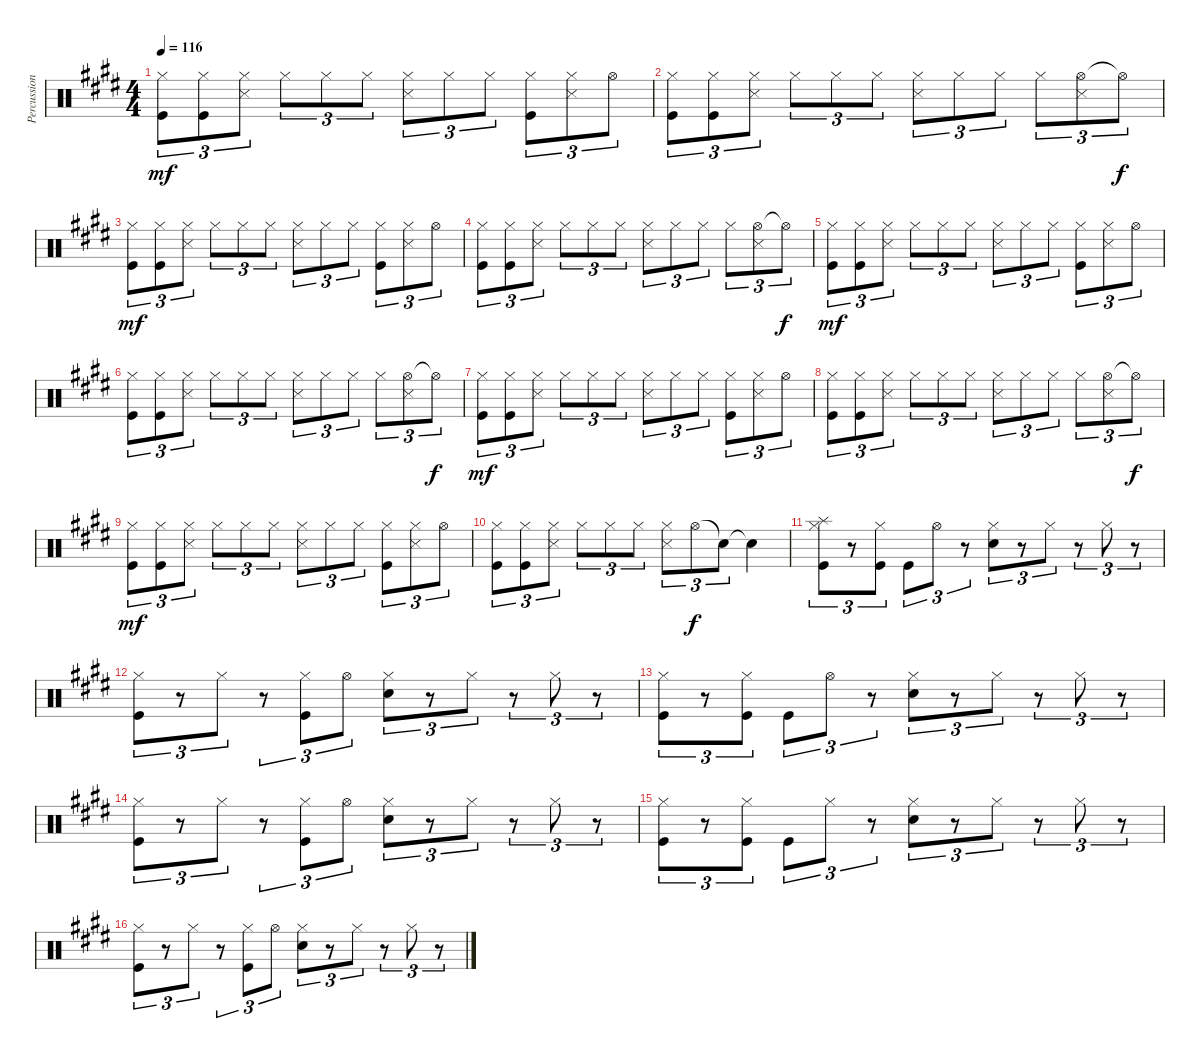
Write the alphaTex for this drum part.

\track ("Percussion" "Percussion") {instrument percussion}
\staff {score}
\articulation defaults
\ts (4 4)
\tempo 116
\clef neutral
\ks c#minor
("Hi-Hat (closed)" "Kick (hit)").8{tu (3 2) dy mf} ("Hi-Hat (closed)" "Kick (hit)").8{tu (3 2)} ("Hi-Hat (closed)" "Snare (side stick) 3").8{tu (3 2)} "Hi-Hat (closed)".8{tu (3 2)} "Hi-Hat (closed)".8{tu (3 2)} "Hi-Hat (closed)".8{tu (3 2)} ("Hi-Hat (closed)" "Snare (side stick) 3").8{tu (3 2)} "Hi-Hat (closed)".8{tu (3 2)} "Hi-Hat (closed)".8{tu (3 2)} ("Hi-Hat (closed)" "Kick (hit)").8{tu (3 2)} ("Hi-Hat (closed)" "Snare (side stick) 3").8{tu (3 2)} "Hi-Hat (open)".8{tu (3 2)} |
("Hi-Hat (closed)" "Kick (hit)").8{tu (3 2)} ("Hi-Hat (closed)" "Kick (hit)").8{tu (3 2)} ("Hi-Hat (closed)" "Snare (side stick) 3").8{tu (3 2)} "Hi-Hat (closed)".8{tu (3 2)} "Hi-Hat (closed)".8{tu (3 2)} "Hi-Hat (closed)".8{tu (3 2)} ("Hi-Hat (closed)" "Snare (side stick) 3").8{tu (3 2)} "Hi-Hat (closed)".8{tu (3 2)} "Hi-Hat (closed)".8{tu (3 2)} "Hi-Hat (closed)".8{tu (3 2)} ("Hi-Hat (open)" "Snare (side stick) 3").8{tu (3 2)} "Hi-Hat (open)"{t}.8{tu (3 2) dy f} |
("Hi-Hat (closed)" "Kick (hit)").8{tu (3 2) dy mf} ("Hi-Hat (closed)" "Kick (hit)").8{tu (3 2)} ("Hi-Hat (closed)" "Snare (side stick) 3").8{tu (3 2)} "Hi-Hat (closed)".8{tu (3 2)} "Hi-Hat (closed)".8{tu (3 2)} "Hi-Hat (closed)".8{tu (3 2)} ("Hi-Hat (closed)" "Snare (side stick) 3").8{tu (3 2)} "Hi-Hat (closed)".8{tu (3 2)} "Hi-Hat (closed)".8{tu (3 2)} ("Hi-Hat (closed)" "Kick (hit)").8{tu (3 2)} ("Hi-Hat (closed)" "Snare (side stick) 3").8{tu (3 2)} "Hi-Hat (open)".8{tu (3 2)} |
("Hi-Hat (closed)" "Kick (hit)").8{tu (3 2)} ("Hi-Hat (closed)" "Kick (hit)").8{tu (3 2)} ("Hi-Hat (closed)" "Snare (side stick) 3").8{tu (3 2)} "Hi-Hat (closed)".8{tu (3 2)} "Hi-Hat (closed)".8{tu (3 2)} "Hi-Hat (closed)".8{tu (3 2)} ("Hi-Hat (closed)" "Snare (side stick) 3").8{tu (3 2)} "Hi-Hat (closed)".8{tu (3 2)} "Hi-Hat (closed)".8{tu (3 2)} "Hi-Hat (closed)".8{tu (3 2)} ("Hi-Hat (open)" "Snare (side stick) 3").8{tu (3 2)} "Hi-Hat (open)"{t}.8{tu (3 2) dy f} |
("Hi-Hat (closed)" "Kick (hit)").8{tu (3 2) dy mf} ("Hi-Hat (closed)" "Kick (hit)").8{tu (3 2)} ("Hi-Hat (closed)" "Snare (side stick) 3").8{tu (3 2)} "Hi-Hat (closed)".8{tu (3 2)} "Hi-Hat (closed)".8{tu (3 2)} "Hi-Hat (closed)".8{tu (3 2)} ("Hi-Hat (closed)" "Snare (side stick) 3").8{tu (3 2)} "Hi-Hat (closed)".8{tu (3 2)} "Hi-Hat (closed)".8{tu (3 2)} ("Hi-Hat (closed)" "Kick (hit)").8{tu (3 2)} ("Hi-Hat (closed)" "Snare (side stick) 3").8{tu (3 2)} "Hi-Hat (open)".8{tu (3 2)} |
("Hi-Hat (closed)" "Kick (hit)").8{tu (3 2)} ("Hi-Hat (closed)" "Kick (hit)").8{tu (3 2)} ("Hi-Hat (closed)" "Snare (side stick) 3").8{tu (3 2)} "Hi-Hat (closed)".8{tu (3 2)} "Hi-Hat (closed)".8{tu (3 2)} "Hi-Hat (closed)".8{tu (3 2)} ("Hi-Hat (closed)" "Snare (side stick) 3").8{tu (3 2)} "Hi-Hat (closed)".8{tu (3 2)} "Hi-Hat (closed)".8{tu (3 2)} "Hi-Hat (closed)".8{tu (3 2)} ("Hi-Hat (open)" "Snare (side stick) 3").8{tu (3 2)} "Hi-Hat (open)"{t}.8{tu (3 2) dy f} |
("Hi-Hat (closed)" "Kick (hit)").8{tu (3 2) dy mf} ("Hi-Hat (closed)" "Kick (hit)").8{tu (3 2)} ("Hi-Hat (closed)" "Snare (side stick) 3").8{tu (3 2)} "Hi-Hat (closed)".8{tu (3 2)} "Hi-Hat (closed)".8{tu (3 2)} "Hi-Hat (closed)".8{tu (3 2)} ("Hi-Hat (closed)" "Snare (side stick) 3").8{tu (3 2)} "Hi-Hat (closed)".8{tu (3 2)} "Hi-Hat (closed)".8{tu (3 2)} ("Hi-Hat (closed)" "Kick (hit)").8{tu (3 2)} ("Hi-Hat (closed)" "Snare (side stick) 3").8{tu (3 2)} "Hi-Hat (open)".8{tu (3 2)} |
("Hi-Hat (closed)" "Kick (hit)").8{tu (3 2)} ("Hi-Hat (closed)" "Kick (hit)").8{tu (3 2)} ("Hi-Hat (closed)" "Snare (side stick) 3").8{tu (3 2)} "Hi-Hat (closed)".8{tu (3 2)} "Hi-Hat (closed)".8{tu (3 2)} "Hi-Hat (closed)".8{tu (3 2)} ("Hi-Hat (closed)" "Snare (side stick) 3").8{tu (3 2)} "Hi-Hat (closed)".8{tu (3 2)} "Hi-Hat (closed)".8{tu (3 2)} "Hi-Hat (closed)".8{tu (3 2)} ("Hi-Hat (open)" "Snare (side stick) 3").8{tu (3 2)} "Hi-Hat (open)"{t}.8{tu (3 2) dy f} |
("Hi-Hat (closed)" "Kick (hit)").8{tu (3 2) dy mf} ("Hi-Hat (closed)" "Kick (hit)").8{tu (3 2)} ("Hi-Hat (closed)" "Snare (side stick) 3").8{tu (3 2)} "Hi-Hat (closed)".8{tu (3 2)} "Hi-Hat (closed)".8{tu (3 2)} "Hi-Hat (closed)".8{tu (3 2)} ("Hi-Hat (closed)" "Snare (side stick) 3").8{tu (3 2)} "Hi-Hat (closed)".8{tu (3 2)} "Hi-Hat (closed)".8{tu (3 2)} ("Hi-Hat (closed)" "Kick (hit)").8{tu (3 2)} ("Hi-Hat (closed)" "Snare (side stick) 3").8{tu (3 2)} "Hi-Hat (open)".8{tu (3 2)} |
("Hi-Hat (closed)" "Kick (hit)").8{tu (3 2)} ("Hi-Hat (closed)" "Kick (hit)").8{tu (3 2)} ("Hi-Hat (closed)" "Snare (side stick) 3").8{tu (3 2)} "Hi-Hat (closed)".8{tu (3 2)} "Hi-Hat (closed)".8{tu (3 2)} "Hi-Hat (closed)".8{tu (3 2)} ("Hi-Hat (closed)" "Snare (side stick) 3").8{tu (3 2)} "Hi-Hat (open)".8{tu (3 2) dy f} "Snare (hit)"{t}.8{tu (3 2)} "Snare (hit)"{t}.4 |
("Splash (hit)" "Hi-Hat (closed)" "Kick (hit)").8{tu (3 2)} r.8{tu (3 2)} ("Hi-Hat (closed)" "Kick (hit)").8{tu (3 2)} "Kick (hit)".8{tu (3 2)} "Hi-Hat (open)".8{tu (3 2)} r.8{tu (3 2)} ("Snare (hit) 2" "Hi-Hat (closed)").8{tu (3 2)} r.8{tu (3 2)} "Hi-Hat (closed)".8{tu (3 2)} r.8{tu (3 2)} "Hi-Hat (closed)".8{tu (3 2)} r.8{tu (3 2)} |
("Hi-Hat (closed)" "Kick (hit)").8{tu (3 2)} r.8{tu (3 2)} "Hi-Hat (closed)".8{tu (3 2)} r.8{tu (3 2)} ("Hi-Hat (closed)" "Kick (hit)").8{tu (3 2)} "Hi-Hat (open)".8{tu (3 2)} ("Snare (hit) 2" "Hi-Hat (closed)").8{tu (3 2)} r.8{tu (3 2)} "Hi-Hat (closed)".8{tu (3 2)} r.8{tu (3 2)} "Hi-Hat (closed)".8{tu (3 2)} r.8{tu (3 2)} |
("Hi-Hat (closed)" "Kick (hit)").8{tu (3 2)} r.8{tu (3 2)} ("Hi-Hat (closed)" "Kick (hit)").8{tu (3 2)} "Kick (hit)".8{tu (3 2)} "Hi-Hat (open)".8{tu (3 2)} r.8{tu (3 2)} ("Snare (hit) 2" "Hi-Hat (closed)").8{tu (3 2)} r.8{tu (3 2)} "Hi-Hat (closed)".8{tu (3 2)} r.8{tu (3 2)} "Hi-Hat (closed)".8{tu (3 2)} r.8{tu (3 2)} |
("Hi-Hat (closed)" "Kick (hit)").8{tu (3 2)} r.8{tu (3 2)} "Hi-Hat (closed)".8{tu (3 2)} r.8{tu (3 2)} ("Hi-Hat (closed)" "Kick (hit)").8{tu (3 2)} "Hi-Hat (open)".8{tu (3 2)} ("Snare (hit) 2" "Hi-Hat (closed)").8{tu (3 2)} r.8{tu (3 2)} "Hi-Hat (closed)".8{tu (3 2)} r.8{tu (3 2)} "Hi-Hat (closed)".8{tu (3 2)} r.8{tu (3 2)} |
("Hi-Hat (closed)" "Kick (hit)").8{tu (3 2)} r.8{tu (3 2)} ("Hi-Hat (closed)" "Kick (hit)").8{tu (3 2)} "Kick (hit)".8{tu (3 2)} "Hi-Hat (closed)".8{tu (3 2)} r.8{tu (3 2)} ("Snare (hit) 2" "Hi-Hat (closed)").8{tu (3 2)} r.8{tu (3 2)} "Hi-Hat (closed)".8{tu (3 2)} r.8{tu (3 2)} "Hi-Hat (closed)".8{tu (3 2)} r.8{tu (3 2)} |
("Hi-Hat (closed)" "Kick (hit)").8{tu (3 2)} r.8{tu (3 2)} "Hi-Hat (closed)".8{tu (3 2)} r.8{tu (3 2)} ("Hi-Hat (closed)" "Kick (hit)").8{tu (3 2)} "Hi-Hat (open)".8{tu (3 2)} ("Snare (hit) 2" "Hi-Hat (closed)").8{tu (3 2)} r.8{tu (3 2)} "Hi-Hat (closed)".8{tu (3 2)} r.8{tu (3 2)} "Hi-Hat (closed)".8{tu (3 2)} r.8{tu (3 2)}
